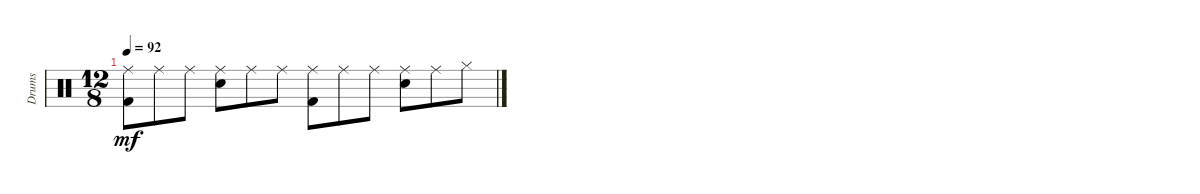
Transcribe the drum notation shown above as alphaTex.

\track ("Drums" "Drums") {instrument percussion}
\staff {score}
\articulation defaults
\ts (12 8)
\tempo 92
\clef neutral
\ks c
("Ride (middle)" "Kick (hit) 2").8{dy mf} "Ride (middle)".8 "Ride (middle)".8 ("Ride (middle)" "Electric Snare (hit)").8 "Ride (middle)".8 "Ride (middle)".8 ("Ride (middle)" "Kick (hit) 2").8 "Ride (middle)".8 "Ride (middle)".8 ("Ride (middle)" "Electric Snare (hit)").8 "Ride (middle)".8 "Hi-Hat (closed)".8
